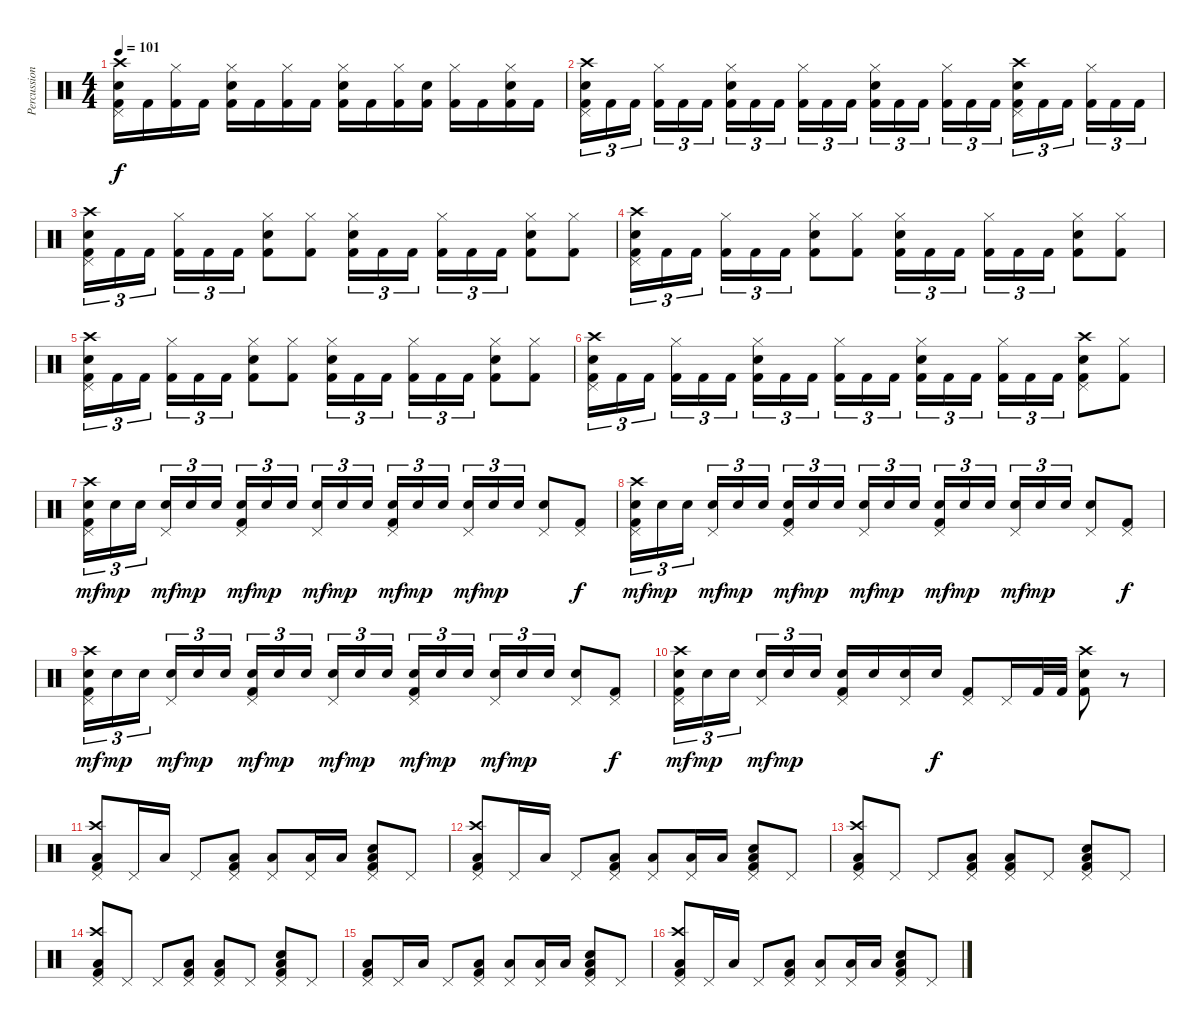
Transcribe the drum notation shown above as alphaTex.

\track ("Percussion" "Percussion") {instrument percussion}
\staff {score}
\articulation defaults
\ts (4 4)
\tempo 101
\clef neutral
\ks c
("Kick (hit) 2" "Snare (hit) 2" "Pedal Hi-Hat (hit)" "Crash high (hit)").16{dy f} "Kick (hit) 2".16 ("Kick (hit) 2" "Hi-Hat (closed)").16 "Kick (hit) 2".16 ("Kick (hit) 2" "Snare (hit) 2" "Hi-Hat (closed)").16 "Kick (hit) 2".16 ("Kick (hit) 2" "Hi-Hat (closed)").16 "Kick (hit) 2".16 ("Kick (hit) 2" "Snare (hit) 2" "Hi-Hat (closed)").16 "Kick (hit) 2".16 ("Kick (hit) 2" "Hi-Hat (closed)").16 ("Kick (hit) 2" "Snare (hit) 2").16 ("Kick (hit) 2" "Hi-Hat (closed)").16 "Kick (hit) 2".16 ("Kick (hit) 2" "Snare (hit) 2" "Hi-Hat (closed)").16 "Kick (hit) 2".16 |
("Kick (hit) 2" "Snare (hit) 2" "Pedal Hi-Hat (hit)" "Crash high (hit)").16{tu (3 2)} "Kick (hit) 2".16{tu (3 2)} "Kick (hit) 2".16{tu (3 2)} ("Kick (hit) 2" "Hi-Hat (closed)").16{tu (3 2)} "Kick (hit) 2".16{tu (3 2)} "Kick (hit) 2".16{tu (3 2)} ("Kick (hit) 2" "Snare (hit) 2" "Hi-Hat (closed)").16{tu (3 2)} "Kick (hit) 2".16{tu (3 2)} "Kick (hit) 2".16{tu (3 2)} ("Kick (hit) 2" "Hi-Hat (closed)").16{tu (3 2)} "Kick (hit) 2".16{tu (3 2)} "Kick (hit) 2".16{tu (3 2)} ("Kick (hit) 2" "Snare (hit) 2" "Hi-Hat (closed)").16{tu (3 2)} "Kick (hit) 2".16{tu (3 2)} "Kick (hit) 2".16{tu (3 2)} ("Kick (hit) 2" "Hi-Hat (closed)").16{tu (3 2)} "Kick (hit) 2".16{tu (3 2)} "Kick (hit) 2".16{tu (3 2)} ("Kick (hit) 2" "Snare (hit) 2" "Pedal Hi-Hat (hit)" "Crash high (hit)").16{tu (3 2)} "Kick (hit) 2".16{tu (3 2)} "Kick (hit) 2".16{tu (3 2)} ("Kick (hit) 2" "Hi-Hat (closed)").16{tu (3 2)} "Kick (hit) 2".16{tu (3 2)} "Kick (hit) 2".16{tu (3 2)} |
("Kick (hit) 2" "Snare (hit) 2" "Pedal Hi-Hat (hit)" "Crash high (hit)").16{tu (3 2)} "Kick (hit) 2".16{tu (3 2)} "Kick (hit) 2".16{tu (3 2)} ("Kick (hit) 2" "Hi-Hat (closed)").16{tu (3 2)} "Kick (hit) 2".16{tu (3 2)} "Kick (hit) 2".16{tu (3 2)} ("Kick (hit) 2" "Snare (hit) 2" "Hi-Hat (closed)").8 ("Kick (hit) 2" "Hi-Hat (closed)").8 ("Kick (hit) 2" "Snare (hit) 2" "Hi-Hat (closed)").16{tu (3 2)} "Kick (hit) 2".16{tu (3 2)} "Kick (hit) 2".16{tu (3 2)} ("Kick (hit) 2" "Hi-Hat (closed)").16{tu (3 2)} "Kick (hit) 2".16{tu (3 2)} "Kick (hit) 2".16{tu (3 2)} ("Kick (hit) 2" "Snare (hit) 2" "Hi-Hat (closed)").8 ("Kick (hit) 2" "Hi-Hat (closed)").8 |
("Kick (hit) 2" "Snare (hit) 2" "Pedal Hi-Hat (hit)" "Crash high (hit)").16{tu (3 2)} "Kick (hit) 2".16{tu (3 2)} "Kick (hit) 2".16{tu (3 2)} ("Kick (hit) 2" "Hi-Hat (closed)").16{tu (3 2)} "Kick (hit) 2".16{tu (3 2)} "Kick (hit) 2".16{tu (3 2)} ("Kick (hit) 2" "Snare (hit) 2" "Hi-Hat (closed)").8 ("Kick (hit) 2" "Hi-Hat (closed)").8 ("Kick (hit) 2" "Snare (hit) 2" "Hi-Hat (closed)").16{tu (3 2)} "Kick (hit) 2".16{tu (3 2)} "Kick (hit) 2".16{tu (3 2)} ("Kick (hit) 2" "Hi-Hat (closed)").16{tu (3 2)} "Kick (hit) 2".16{tu (3 2)} "Kick (hit) 2".16{tu (3 2)} ("Kick (hit) 2" "Snare (hit) 2" "Hi-Hat (closed)").8 ("Kick (hit) 2" "Hi-Hat (closed)").8 |
("Kick (hit) 2" "Snare (hit) 2" "Pedal Hi-Hat (hit)" "Crash high (hit)").16{tu (3 2)} "Kick (hit) 2".16{tu (3 2)} "Kick (hit) 2".16{tu (3 2)} ("Kick (hit) 2" "Hi-Hat (closed)").16{tu (3 2)} "Kick (hit) 2".16{tu (3 2)} "Kick (hit) 2".16{tu (3 2)} ("Kick (hit) 2" "Snare (hit) 2" "Hi-Hat (closed)").8 ("Kick (hit) 2" "Hi-Hat (closed)").8 ("Kick (hit) 2" "Snare (hit) 2" "Hi-Hat (closed)").16{tu (3 2)} "Kick (hit) 2".16{tu (3 2)} "Kick (hit) 2".16{tu (3 2)} ("Kick (hit) 2" "Hi-Hat (closed)").16{tu (3 2)} "Kick (hit) 2".16{tu (3 2)} "Kick (hit) 2".16{tu (3 2)} ("Kick (hit) 2" "Snare (hit) 2" "Hi-Hat (closed)").8 ("Kick (hit) 2" "Hi-Hat (closed)").8 |
("Kick (hit) 2" "Snare (hit) 2" "Pedal Hi-Hat (hit)" "Crash high (hit)").16{tu (3 2)} "Kick (hit) 2".16{tu (3 2)} "Kick (hit) 2".16{tu (3 2)} ("Kick (hit) 2" "Hi-Hat (closed)").16{tu (3 2)} "Kick (hit) 2".16{tu (3 2)} "Kick (hit) 2".16{tu (3 2)} ("Kick (hit) 2" "Snare (hit) 2" "Hi-Hat (closed)").16{tu (3 2)} "Kick (hit) 2".16{tu (3 2)} "Kick (hit) 2".16{tu (3 2)} ("Kick (hit) 2" "Hi-Hat (closed)").16{tu (3 2)} "Kick (hit) 2".16{tu (3 2)} "Kick (hit) 2".16{tu (3 2)} ("Kick (hit) 2" "Snare (hit) 2" "Hi-Hat (closed)").16{tu (3 2)} "Kick (hit) 2".16{tu (3 2)} "Kick (hit) 2".16{tu (3 2)} ("Kick (hit) 2" "Hi-Hat (closed)").16{tu (3 2)} "Kick (hit) 2".16{tu (3 2)} "Kick (hit) 2".16{tu (3 2)} ("Kick (hit) 2" "Snare (hit) 2" "Pedal Hi-Hat (hit)" "Crash high (hit)").8 ("Kick (hit) 2" "Hi-Hat (closed)").8 |
("Kick (hit) 2" "Snare (hit) 2" "Pedal Hi-Hat (hit)" "Crash high (hit)").16{tu (3 2) dy mf} "Snare (hit) 2".16{tu (3 2) dy mp} "Snare (hit) 2".16{tu (3 2)} ("Snare (hit) 2" "Pedal Hi-Hat (hit)").16{tu (3 2) dy mf} "Snare (hit) 2".16{tu (3 2) dy mp} "Snare (hit) 2".16{tu (3 2)} ("Kick (hit) 2" "Snare (hit) 2" "Pedal Hi-Hat (hit)").16{tu (3 2) dy mf} "Snare (hit) 2".16{tu (3 2) dy mp} "Snare (hit) 2".16{tu (3 2)} ("Snare (hit) 2" "Pedal Hi-Hat (hit)").16{tu (3 2) dy mf} "Snare (hit) 2".16{tu (3 2) dy mp} "Snare (hit) 2".16{tu (3 2)} ("Kick (hit) 2" "Snare (hit) 2" "Pedal Hi-Hat (hit)").16{tu (3 2) dy mf} "Snare (hit) 2".16{tu (3 2) dy mp} "Snare (hit) 2".16{tu (3 2)} ("Snare (hit) 2" "Pedal Hi-Hat (hit)").16{tu (3 2) dy mf} "Snare (hit) 2".16{tu (3 2) dy mp} "Snare (hit) 2".16{tu (3 2)} ("Snare (hit) 2" "Pedal Hi-Hat (hit)").8 ("Kick (hit) 2" "Pedal Hi-Hat (hit)").8{dy f} |
("Kick (hit) 2" "Snare (hit) 2" "Pedal Hi-Hat (hit)" "Crash high (hit)").16{tu (3 2) dy mf} "Snare (hit) 2".16{tu (3 2) dy mp} "Snare (hit) 2".16{tu (3 2)} ("Snare (hit) 2" "Pedal Hi-Hat (hit)").16{tu (3 2) dy mf} "Snare (hit) 2".16{tu (3 2) dy mp} "Snare (hit) 2".16{tu (3 2)} ("Kick (hit) 2" "Snare (hit) 2" "Pedal Hi-Hat (hit)").16{tu (3 2) dy mf} "Snare (hit) 2".16{tu (3 2) dy mp} "Snare (hit) 2".16{tu (3 2)} ("Snare (hit) 2" "Pedal Hi-Hat (hit)").16{tu (3 2) dy mf} "Snare (hit) 2".16{tu (3 2) dy mp} "Snare (hit) 2".16{tu (3 2)} ("Kick (hit) 2" "Snare (hit) 2" "Pedal Hi-Hat (hit)").16{tu (3 2) dy mf} "Snare (hit) 2".16{tu (3 2) dy mp} "Snare (hit) 2".16{tu (3 2)} ("Snare (hit) 2" "Pedal Hi-Hat (hit)").16{tu (3 2) dy mf} "Snare (hit) 2".16{tu (3 2) dy mp} "Snare (hit) 2".16{tu (3 2)} ("Snare (hit) 2" "Pedal Hi-Hat (hit)").8 ("Kick (hit) 2" "Pedal Hi-Hat (hit)").8{dy f} |
("Kick (hit) 2" "Snare (hit) 2" "Pedal Hi-Hat (hit)" "Crash high (hit)").16{tu (3 2) dy mf} "Snare (hit) 2".16{tu (3 2) dy mp} "Snare (hit) 2".16{tu (3 2)} ("Snare (hit) 2" "Pedal Hi-Hat (hit)").16{tu (3 2) dy mf} "Snare (hit) 2".16{tu (3 2) dy mp} "Snare (hit) 2".16{tu (3 2)} ("Kick (hit) 2" "Snare (hit) 2" "Pedal Hi-Hat (hit)").16{tu (3 2) dy mf} "Snare (hit) 2".16{tu (3 2) dy mp} "Snare (hit) 2".16{tu (3 2)} ("Snare (hit) 2" "Pedal Hi-Hat (hit)").16{tu (3 2) dy mf} "Snare (hit) 2".16{tu (3 2) dy mp} "Snare (hit) 2".16{tu (3 2)} ("Kick (hit) 2" "Snare (hit) 2" "Pedal Hi-Hat (hit)").16{tu (3 2) dy mf} "Snare (hit) 2".16{tu (3 2) dy mp} "Snare (hit) 2".16{tu (3 2)} ("Snare (hit) 2" "Pedal Hi-Hat (hit)").16{tu (3 2) dy mf} "Snare (hit) 2".16{tu (3 2) dy mp} "Snare (hit) 2".16{tu (3 2)} ("Snare (hit) 2" "Pedal Hi-Hat (hit)").8 ("Kick (hit) 2" "Pedal Hi-Hat (hit)").8{dy f} |
("Kick (hit) 2" "Snare (hit) 2" "Pedal Hi-Hat (hit)" "Crash high (hit)").16{tu (3 2) dy mf} "Snare (hit) 2".16{tu (3 2) dy mp} "Snare (hit) 2".16{tu (3 2)} ("Snare (hit) 2" "Pedal Hi-Hat (hit)").16{tu (3 2) dy mf} "Snare (hit) 2".16{tu (3 2) dy mp} "Snare (hit) 2".16{tu (3 2)} ("Kick (hit) 2" "Snare (hit) 2" "Pedal Hi-Hat (hit)").16 "Snare (hit) 2".16 ("Snare (hit) 2" "Pedal Hi-Hat (hit)").16 "Snare (hit) 2".16{dy f} ("Kick (hit) 2" "Pedal Hi-Hat (hit)").8 "Pedal Hi-Hat (hit)".16 "Kick (hit) 2".32 "Kick (hit) 2".32 ("Kick (hit) 2" "Snare (hit) 2" "Crash high (hit)").8 r.8 |
("Kick (hit) 2" "Low Floor Tom (hit)" "Pedal Hi-Hat (hit)" "Crash high (hit)").8 "Pedal Hi-Hat (hit)".16 "Low Floor Tom (hit)".16 "Pedal Hi-Hat (hit)".8 ("Kick (hit) 2" "Low Floor Tom (hit)" "Pedal Hi-Hat (hit)").8 ("Low Floor Tom (hit)" "Pedal Hi-Hat (hit)").8 ("Low Floor Tom (hit)" "Pedal Hi-Hat (hit)").16 "Low Floor Tom (hit)".16 ("Kick (hit) 2" "Snare (hit) 2" "Low Floor Tom (hit)" "Pedal Hi-Hat (hit)").8 "Pedal Hi-Hat (hit)".8 |
("Kick (hit) 2" "Low Floor Tom (hit)" "Pedal Hi-Hat (hit)" "Crash high (hit)").8 "Pedal Hi-Hat (hit)".16 "Low Floor Tom (hit)".16 "Pedal Hi-Hat (hit)".8 ("Kick (hit) 2" "Low Floor Tom (hit)" "Pedal Hi-Hat (hit)").8 ("Low Floor Tom (hit)" "Pedal Hi-Hat (hit)").8 ("Low Floor Tom (hit)" "Pedal Hi-Hat (hit)").16 "Low Floor Tom (hit)".16 ("Kick (hit) 2" "Snare (hit) 2" "Low Floor Tom (hit)" "Pedal Hi-Hat (hit)").8 "Pedal Hi-Hat (hit)".8 |
("Kick (hit) 2" "Low Floor Tom (hit)" "Pedal Hi-Hat (hit)" "Crash high (hit)").8 "Pedal Hi-Hat (hit)".8 "Pedal Hi-Hat (hit)".8 ("Kick (hit) 2" "Low Floor Tom (hit)" "Pedal Hi-Hat (hit)").8 ("Kick (hit) 2" "Low Floor Tom (hit)" "Pedal Hi-Hat (hit)").8 "Pedal Hi-Hat (hit)".8 ("Kick (hit) 2" "Snare (hit) 2" "Low Floor Tom (hit)" "Pedal Hi-Hat (hit)").8 "Pedal Hi-Hat (hit)".8 |
("Kick (hit) 2" "Low Floor Tom (hit)" "Pedal Hi-Hat (hit)" "Crash high (hit)").8 "Pedal Hi-Hat (hit)".8 "Pedal Hi-Hat (hit)".8 ("Kick (hit) 2" "Low Floor Tom (hit)" "Pedal Hi-Hat (hit)").8 ("Kick (hit) 2" "Low Floor Tom (hit)" "Pedal Hi-Hat (hit)").8 "Pedal Hi-Hat (hit)".8 ("Kick (hit) 2" "Snare (hit) 2" "Low Floor Tom (hit)" "Pedal Hi-Hat (hit)").8 "Pedal Hi-Hat (hit)".8 |
("Kick (hit) 2" "Low Floor Tom (hit)" "Pedal Hi-Hat (hit)").8 "Pedal Hi-Hat (hit)".16 "Low Floor Tom (hit)".16 "Pedal Hi-Hat (hit)".8 ("Kick (hit) 2" "Low Floor Tom (hit)" "Pedal Hi-Hat (hit)").8 ("Low Floor Tom (hit)" "Pedal Hi-Hat (hit)").8 ("Low Floor Tom (hit)" "Pedal Hi-Hat (hit)").16 "Low Floor Tom (hit)".16 ("Kick (hit) 2" "Snare (hit) 2" "Low Floor Tom (hit)" "Pedal Hi-Hat (hit)").8 "Pedal Hi-Hat (hit)".8 |
("Kick (hit) 2" "Low Floor Tom (hit)" "Pedal Hi-Hat (hit)" "Crash high (hit)").8 "Pedal Hi-Hat (hit)".16 "Low Floor Tom (hit)".16 "Pedal Hi-Hat (hit)".8 ("Kick (hit) 2" "Low Floor Tom (hit)" "Pedal Hi-Hat (hit)").8 ("Low Floor Tom (hit)" "Pedal Hi-Hat (hit)").8 ("Low Floor Tom (hit)" "Pedal Hi-Hat (hit)").16 "Low Floor Tom (hit)".16 ("Kick (hit) 2" "Snare (hit) 2" "Low Floor Tom (hit)" "Pedal Hi-Hat (hit)").8 "Pedal Hi-Hat (hit)".8
